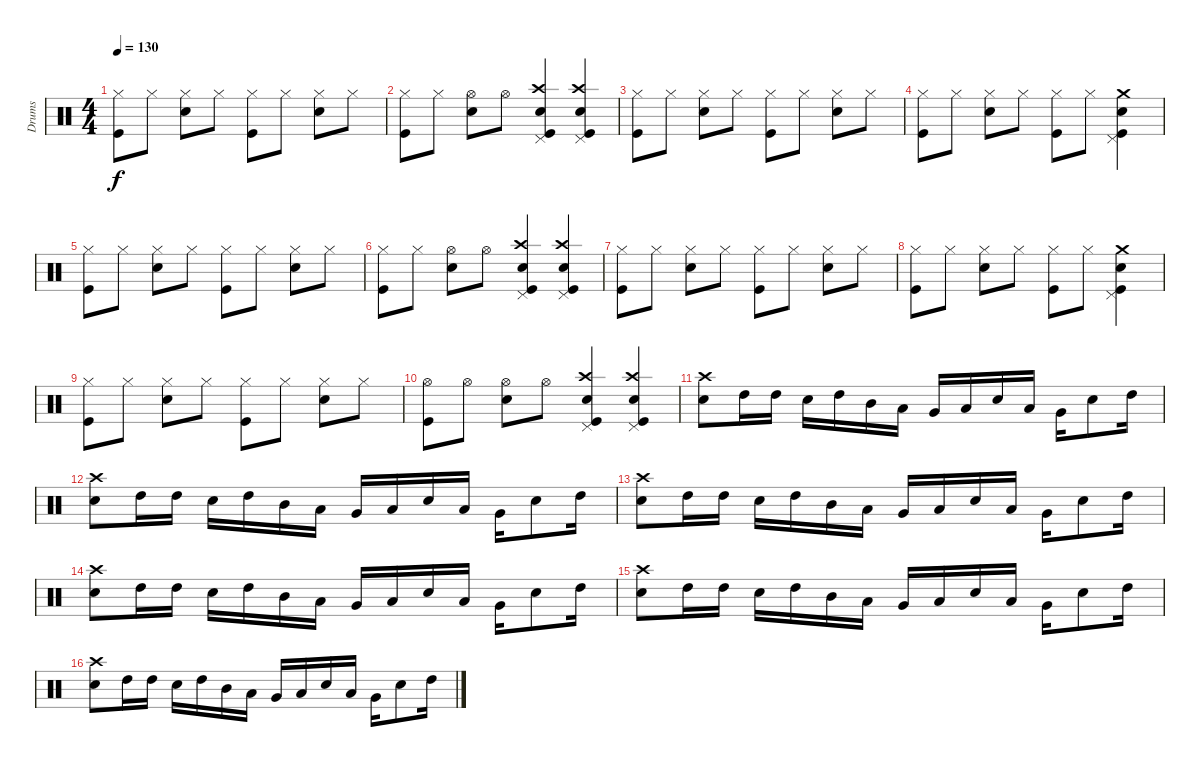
\track ("Drums" "Drums") {instrument percussion}
\staff {score}
\articulation defaults
\ts (4 4)
\tempo 130
\clef neutral
\ks c
("Hi-Hat (closed)" "Kick (hit)").8{dy f} "Hi-Hat (closed)".8 ("Hi-Hat (closed)" "Electric Snare (hit)").8 "Hi-Hat (closed)".8 ("Hi-Hat (closed)" "Kick (hit)").8 "Hi-Hat (closed)".8 ("Hi-Hat (closed)" "Electric Snare (hit)").8 "Hi-Hat (closed)".8 |
("Hi-Hat (closed)" "Kick (hit)").8 "Hi-Hat (closed)".8 ("Hi-Hat (open)" "Electric Snare (hit)").8 "Hi-Hat (open)".8 ("Crash high (hit)" "Pedal Hi-Hat (hit)" "Electric Snare (hit)" "Kick (hit)").4 ("Crash high (hit)" "Pedal Hi-Hat (hit)" "Electric Snare (hit)" "Kick (hit)").4 |
("Hi-Hat (closed)" "Kick (hit)").8 "Hi-Hat (closed)".8 ("Hi-Hat (closed)" "Electric Snare (hit)").8 "Hi-Hat (closed)".8 ("Hi-Hat (closed)" "Kick (hit)").8 "Hi-Hat (closed)".8 ("Hi-Hat (closed)" "Electric Snare (hit)").8 "Hi-Hat (closed)".8 |
("Hi-Hat (closed)" "Kick (hit)").8 "Hi-Hat (closed)".8 ("Hi-Hat (closed)" "Electric Snare (hit)").8 "Hi-Hat (closed)".8 ("Hi-Hat (closed)" "Kick (hit)").8 "Hi-Hat (closed)".8 ("Crash medium (hit)" "Pedal Hi-Hat (hit)" "Electric Snare (hit)" "Kick (hit)").4 |
("Hi-Hat (closed)" "Kick (hit)").8 "Hi-Hat (closed)".8 ("Hi-Hat (closed)" "Electric Snare (hit)").8 "Hi-Hat (closed)".8 ("Hi-Hat (closed)" "Kick (hit)").8 "Hi-Hat (closed)".8 ("Hi-Hat (closed)" "Electric Snare (hit)").8 "Hi-Hat (closed)".8 |
("Hi-Hat (closed)" "Kick (hit)").8 "Hi-Hat (closed)".8 ("Hi-Hat (open)" "Electric Snare (hit)").8 "Hi-Hat (open)".8 ("Crash high (hit)" "Pedal Hi-Hat (hit)" "Electric Snare (hit)" "Kick (hit)").4 ("Crash high (hit)" "Pedal Hi-Hat (hit)" "Electric Snare (hit)" "Kick (hit)").4 |
("Hi-Hat (closed)" "Kick (hit)").8 "Hi-Hat (closed)".8 ("Hi-Hat (closed)" "Electric Snare (hit)").8 "Hi-Hat (closed)".8 ("Hi-Hat (closed)" "Kick (hit)").8 "Hi-Hat (closed)".8 ("Hi-Hat (closed)" "Electric Snare (hit)").8 "Hi-Hat (closed)".8 |
("Hi-Hat (closed)" "Kick (hit)").8 "Hi-Hat (closed)".8 ("Hi-Hat (closed)" "Electric Snare (hit)").8 "Hi-Hat (closed)".8 ("Hi-Hat (closed)" "Kick (hit)").8 "Hi-Hat (closed)".8 ("Crash medium (hit)" "Pedal Hi-Hat (hit)" "Electric Snare (hit)" "Kick (hit)").4 |
("Hi-Hat (closed)" "Kick (hit)").8 "Hi-Hat (closed)".8 ("Hi-Hat (closed)" "Electric Snare (hit)").8 "Hi-Hat (closed)".8 ("Hi-Hat (closed)" "Kick (hit)").8 "Hi-Hat (closed)".8 ("Hi-Hat (closed)" "Electric Snare (hit)").8 "Hi-Hat (closed)".8 |
("Hi-Hat (open)" "Kick (hit)").8{volume 16} "Hi-Hat (open)".8 ("Hi-Hat (open)" "Electric Snare (hit)").8 "Hi-Hat (open)".8 ("Crash high (hit)" "Pedal Hi-Hat (hit)" "Electric Snare (hit)" "Kick (hit)").4 ("Crash high (hit)" "Pedal Hi-Hat (hit)" "Electric Snare (hit)" "Kick (hit)").4 |
("Crash high (hit)" "Electric Snare (hit)").8 "High Tom (hit)".16 "High Tom (hit)".16 "Electric Snare (hit)".16 "High Tom (hit)".16 "Mid Tom (hit)".16 "Low Tom (hit)".16 "Very Low Tom (hit)".16 "Low Floor Tom (hit)".16 "Electric Snare (hit)".16 "Low Floor Tom (hit)".16 "Very Low Tom (hit)".16 "Electric Snare (hit)".8 "High Tom (hit)".16 |
("Crash high (hit)" "Electric Snare (hit)").8 "High Tom (hit)".16 "High Tom (hit)".16 "Electric Snare (hit)".16 "High Tom (hit)".16 "Mid Tom (hit)".16 "Low Tom (hit)".16 "Very Low Tom (hit)".16 "Low Floor Tom (hit)".16 "Electric Snare (hit)".16 "Low Floor Tom (hit)".16 "Very Low Tom (hit)".16 "Electric Snare (hit)".8 "High Tom (hit)".16 |
("Crash high (hit)" "Electric Snare (hit)").8 "High Tom (hit)".16 "High Tom (hit)".16 "Electric Snare (hit)".16 "High Tom (hit)".16 "Mid Tom (hit)".16 "Low Tom (hit)".16 "Very Low Tom (hit)".16 "Low Floor Tom (hit)".16 "Electric Snare (hit)".16 "Low Floor Tom (hit)".16 "Very Low Tom (hit)".16 "Electric Snare (hit)".8 "High Tom (hit)".16 |
("Crash high (hit)" "Electric Snare (hit)").8 "High Tom (hit)".16 "High Tom (hit)".16 "Electric Snare (hit)".16 "High Tom (hit)".16 "Mid Tom (hit)".16 "Low Tom (hit)".16 "Very Low Tom (hit)".16 "Low Floor Tom (hit)".16 "Electric Snare (hit)".16 "Low Floor Tom (hit)".16 "Very Low Tom (hit)".16 "Electric Snare (hit)".8 "High Tom (hit)".16 |
("Crash high (hit)" "Electric Snare (hit)").8 "High Tom (hit)".16 "High Tom (hit)".16 "Electric Snare (hit)".16 "High Tom (hit)".16 "Mid Tom (hit)".16 "Low Tom (hit)".16 "Very Low Tom (hit)".16 "Low Floor Tom (hit)".16 "Electric Snare (hit)".16 "Low Floor Tom (hit)".16 "Very Low Tom (hit)".16 "Electric Snare (hit)".8 "High Tom (hit)".16 |
("Crash high (hit)" "Electric Snare (hit)").8 "High Tom (hit)".16 "High Tom (hit)".16 "Electric Snare (hit)".16 "High Tom (hit)".16 "Mid Tom (hit)".16 "Low Tom (hit)".16 "Very Low Tom (hit)".16 "Low Floor Tom (hit)".16 "Electric Snare (hit)".16 "Low Floor Tom (hit)".16 "Very Low Tom (hit)".16 "Electric Snare (hit)".8 "High Tom (hit)".16
